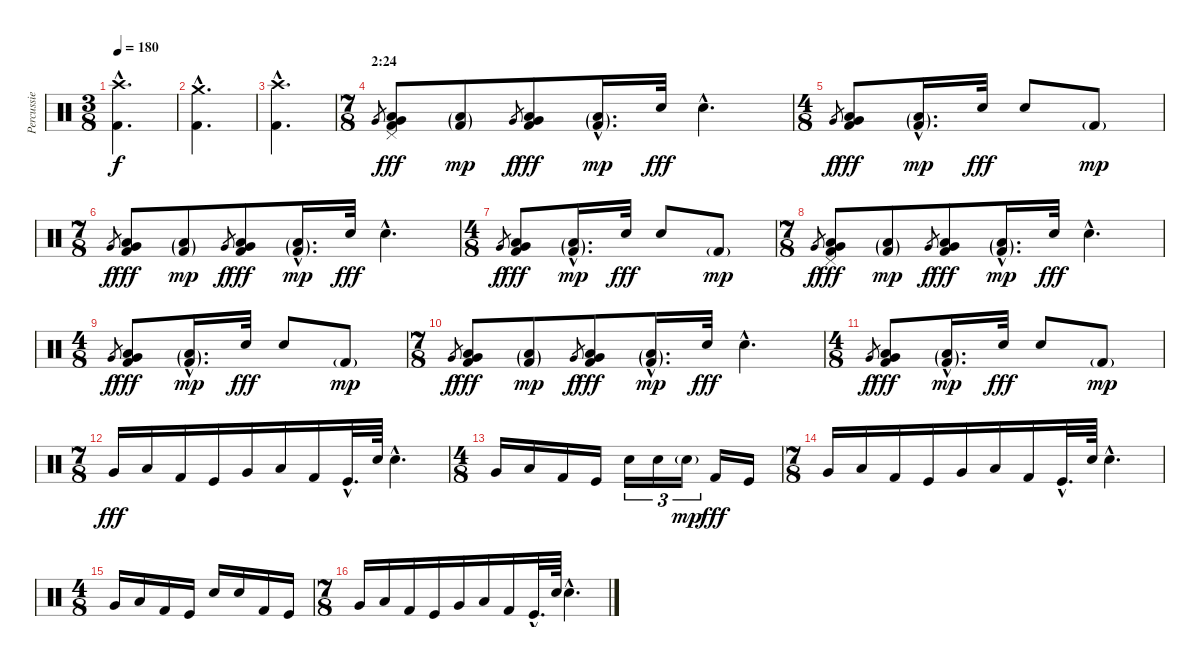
\track ("Percussie" "Percussie") {instrument percussion}
\staff {score}
\articulation defaults
\ts (3 8)
\tempo 180
\clef neutral
\ks c
("Crash high (hit)"{hac} "Kick (hit) 2"{hac}).4{d dy f} |
("Crash medium (hit)"{hac} "Kick (hit) 2"{hac}).4{d} |
("Crash high (hit)"{hac} "Kick (hit) 2"{hac}).4{d} |
\ts (7 8)
\section ("" "2:24")
"Very Low Tom (hit)".8{gr} ("Low Floor Tom (hit)" "Very Low Tom (hit)" "Pedal Hi-Hat (hit)" "Kick (hit) 2").8{dy fff volume 16} ("Low Floor Tom (hit)"{g} "Kick (hit) 2"{g}).8{dy mp} "Very Low Tom (hit)".8{gr dy f} ("Low Floor Tom (hit)" "Very Low Tom (hit)" "Kick (hit) 2").8{dy fff} ("Low Floor Tom (hit)"{g hac} "Kick (hit) 2"{g hac}).16{d dy mp} "Snare (hit) 2".32{dy fff} "Snare (hit) 2"{hac}.4{d} |
\ts (4 8)
"Very Low Tom (hit)".8{gr dy f} ("Very Low Tom (hit)" "Low Floor Tom (hit)" "Kick (hit) 2").8{dy fff} ("Low Floor Tom (hit)"{g hac} "Kick (hit) 2"{g hac}).16{d dy mp} "Snare (hit) 2".32{dy fff} "Snare (hit) 2".8 "Kick (hit) 2"{g}.8{dy mp} |
\ts (7 8)
"Very Low Tom (hit)".8{gr dy f} ("Low Floor Tom (hit)" "Very Low Tom (hit)" "Kick (hit) 2").8{dy fff volume 16} ("Low Floor Tom (hit)"{g} "Kick (hit) 2"{g}).8{dy mp} "Very Low Tom (hit)".8{gr dy f} ("Low Floor Tom (hit)" "Very Low Tom (hit)" "Kick (hit) 2").8{dy fff} ("Low Floor Tom (hit)"{g hac} "Kick (hit) 2"{g hac}).16{d dy mp} "Snare (hit) 2".32{dy fff} "Snare (hit) 2"{hac}.4{d} |
\ts (4 8)
"Very Low Tom (hit)".8{gr dy f} ("Very Low Tom (hit)" "Low Floor Tom (hit)" "Kick (hit) 2").8{dy fff} ("Low Floor Tom (hit)"{g hac} "Kick (hit) 2"{g hac}).16{d dy mp} "Snare (hit) 2".32{dy fff} "Snare (hit) 2".8 "Kick (hit) 2"{g}.8{dy mp} |
\ts (7 8)
"Very Low Tom (hit)".8{gr dy f} ("Low Floor Tom (hit)" "Very Low Tom (hit)" "Pedal Hi-Hat (hit)" "Kick (hit) 2").8{dy fff volume 16} ("Low Floor Tom (hit)"{g} "Kick (hit) 2"{g}).8{dy mp} "Very Low Tom (hit)".8{gr dy f} ("Low Floor Tom (hit)" "Very Low Tom (hit)" "Kick (hit) 2").8{dy fff} ("Low Floor Tom (hit)"{g hac} "Kick (hit) 2"{g hac}).16{d dy mp} "Snare (hit) 2".32{dy fff} "Snare (hit) 2"{hac}.4{d} |
\ts (4 8)
"Very Low Tom (hit)".8{gr dy f} ("Very Low Tom (hit)" "Low Floor Tom (hit)" "Kick (hit) 2").8{dy fff} ("Low Floor Tom (hit)"{g hac} "Kick (hit) 2"{g hac}).16{d dy mp} "Snare (hit) 2".32{dy fff} "Snare (hit) 2".8 "Kick (hit) 2"{g}.8{dy mp} |
\ts (7 8)
"Very Low Tom (hit)".8{gr dy f} ("Low Floor Tom (hit)" "Very Low Tom (hit)" "Kick (hit) 2").8{dy fff volume 16} ("Low Floor Tom (hit)"{g} "Kick (hit) 2"{g}).8{dy mp} "Very Low Tom (hit)".8{gr dy f} ("Low Floor Tom (hit)" "Very Low Tom (hit)" "Kick (hit) 2").8{dy fff} ("Low Floor Tom (hit)"{g hac} "Kick (hit) 2"{g hac}).16{d dy mp} "Snare (hit) 2".32{dy fff} "Snare (hit) 2"{hac}.4{d} |
\ts (4 8)
"Very Low Tom (hit)".8{gr dy f} ("Very Low Tom (hit)" "Low Floor Tom (hit)" "Kick (hit) 2").8{dy fff} ("Low Floor Tom (hit)"{g hac} "Kick (hit) 2"{g hac}).16{d dy mp} "Snare (hit) 2".32{dy fff} "Snare (hit) 2".8 "Kick (hit) 2"{g}.8{dy mp} |
\ts (7 8)
"Very Low Tom (hit)".16{dy fff} "Low Floor Tom (hit)".16 "Kick (hit) 2".16 "Kick (hit)".16 "Very Low Tom (hit)".16 "Low Floor Tom (hit)".16 "Kick (hit) 2".16 "Kick (hit)"{hac}.32{d} "Snare (hit) 2".64 "Snare (hit) 2"{hac}.4{d} |
\ts (4 8)
"Very Low Tom (hit)".16 "Low Floor Tom (hit)".16 "Kick (hit) 2".16 "Kick (hit)".16 "Snare (hit) 2".16{tu (3 2)} "Snare (hit) 2".16{tu (3 2)} "Snare (hit) 2"{g}.16{tu (3 2) dy mp} "Kick (hit) 2".16{dy fff} "Kick (hit)".16 |
\ts (7 8)
"Very Low Tom (hit)".16 "Low Floor Tom (hit)".16 "Kick (hit) 2".16 "Kick (hit)".16 "Very Low Tom (hit)".16 "Low Floor Tom (hit)".16 "Kick (hit) 2".16 "Kick (hit)"{hac}.32{d} "Snare (hit) 2".64 "Snare (hit) 2"{hac}.4{d} |
\ts (4 8)
"Very Low Tom (hit)".16 "Low Floor Tom (hit)".16 "Kick (hit) 2".16 "Kick (hit)".16 "Snare (hit) 2".16 "Snare (hit) 2".16 "Kick (hit) 2".16 "Kick (hit)".16 |
\ts (7 8)
"Very Low Tom (hit)".16 "Low Floor Tom (hit)".16 "Kick (hit) 2".16 "Kick (hit)".16 "Very Low Tom (hit)".16 "Low Floor Tom (hit)".16 "Kick (hit) 2".16 "Kick (hit)"{hac}.32{d} "Snare (hit) 2".64 "Snare (hit) 2"{hac}.4{d}
